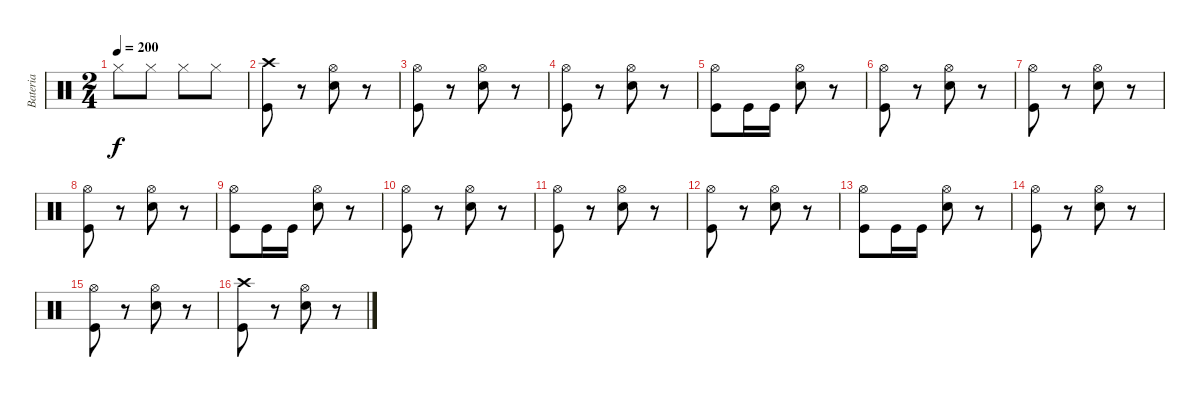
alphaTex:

\track ("Bateria" "Bateria") {instrument percussion}
\staff {score}
\articulation defaults
\ts (2 4)
\tempo 200
\clef neutral
\ks c "Hi-Hat (closed)".8{dy f} "Hi-Hat (closed)".8 "Hi-Hat (closed)".8 "Hi-Hat (closed)".8
|
("Kick (hit)" "Crash high (hit)").8 r.8 ("Electric Snare (hit)" "Hi-Hat (open)").8 r.8 |
("Kick (hit)" "Hi-Hat (open)").8 r.8 ("Electric Snare (hit)" "Hi-Hat (open)").8 r.8 |
("Kick (hit)" "Hi-Hat (open)").8 r.8 ("Electric Snare (hit)" "Hi-Hat (open)").8 r.8 |
("Kick (hit)" "Hi-Hat (open)").8 "Kick (hit)".16 "Kick (hit)".16 ("Electric Snare (hit)" "Hi-Hat (open)").8 r.8 |
("Kick (hit)" "Hi-Hat (open)").8 r.8 ("Electric Snare (hit)" "Hi-Hat (open)").8 r.8 |
("Kick (hit)" "Hi-Hat (open)").8 r.8 ("Electric Snare (hit)" "Hi-Hat (open)").8 r.8 |
("Kick (hit)" "Hi-Hat (open)").8 r.8 ("Electric Snare (hit)" "Hi-Hat (open)").8 r.8 |
("Kick (hit)" "Hi-Hat (open)").8 "Kick (hit)".16 "Kick (hit)".16 ("Electric Snare (hit)" "Hi-Hat (open)").8 r.8 |
("Kick (hit)" "Hi-Hat (open)").8 r.8 ("Electric Snare (hit)" "Hi-Hat (open)").8 r.8 |
("Kick (hit)" "Hi-Hat (open)").8 r.8 ("Electric Snare (hit)" "Hi-Hat (open)").8 r.8 |
("Kick (hit)" "Hi-Hat (open)").8 r.8 ("Electric Snare (hit)" "Hi-Hat (open)").8 r.8 |
("Kick (hit)" "Hi-Hat (open)").8 "Kick (hit)".16 "Kick (hit)".16 ("Electric Snare (hit)" "Hi-Hat (open)").8 r.8 |
("Kick (hit)" "Hi-Hat (open)").8 r.8 ("Electric Snare (hit)" "Hi-Hat (open)").8 r.8 |
("Kick (hit)" "Hi-Hat (open)").8 r.8 ("Electric Snare (hit)" "Hi-Hat (open)").8 r.8 |
("Kick (hit)" "Crash high (hit)").8 r.8 ("Electric Snare (hit)" "Hi-Hat (open)").8 r.8
